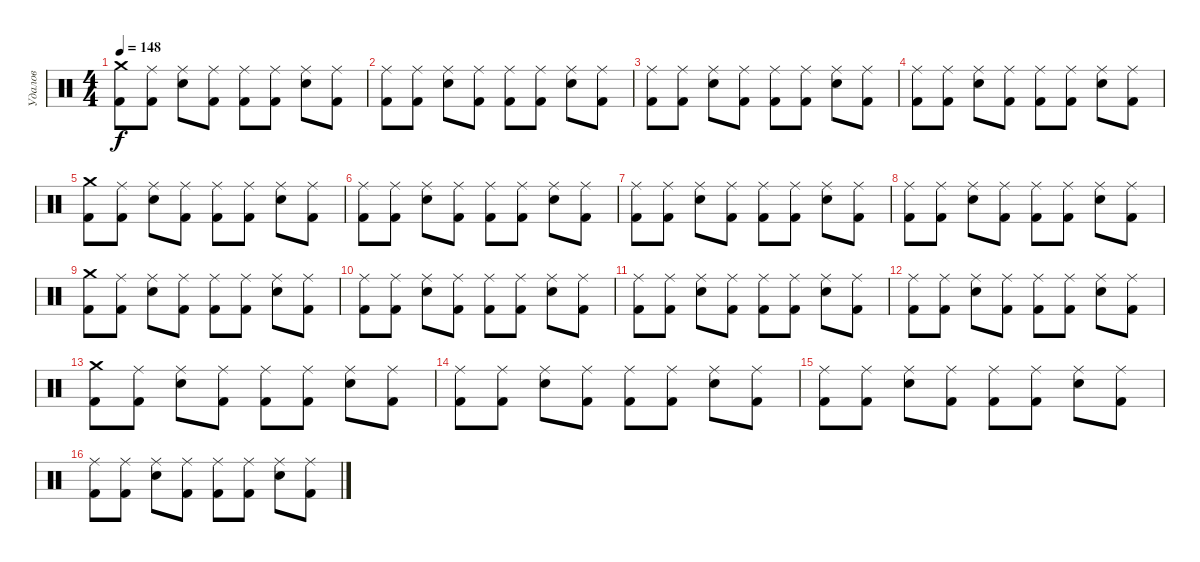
\track ("Удалов" "Удалов") {instrument percussion}
\staff {score}
\articulation defaults
\ts (4 4)
\tempo 148
\clef neutral
\ks c
("Kick (hit) 2" "Crash medium (hit)").8{dy f} ("Ride (middle)" "Kick (hit) 2").8 ("Ride (middle)" "Snare (hit) 2").8 ("Ride (middle)" "Kick (hit) 2").8 ("Ride (middle)" "Kick (hit) 2").8 ("Ride (middle)" "Kick (hit) 2").8 ("Ride (middle)" "Snare (hit) 2").8 ("Ride (middle)" "Kick (hit) 2").8 |
("Kick (hit) 2" "Ride (middle)").8 ("Ride (middle)" "Kick (hit) 2").8 ("Ride (middle)" "Snare (hit) 2").8 ("Ride (middle)" "Kick (hit) 2").8 ("Ride (middle)" "Kick (hit) 2").8 ("Ride (middle)" "Kick (hit) 2").8 ("Ride (middle)" "Snare (hit) 2").8 ("Ride (middle)" "Kick (hit) 2").8 |
("Kick (hit) 2" "Ride (middle)").8 ("Ride (middle)" "Kick (hit) 2").8 ("Ride (middle)" "Snare (hit) 2").8 ("Ride (middle)" "Kick (hit) 2").8 ("Ride (middle)" "Kick (hit) 2").8 ("Ride (middle)" "Kick (hit) 2").8 ("Ride (middle)" "Snare (hit) 2").8 ("Ride (middle)" "Kick (hit) 2").8 |
("Kick (hit) 2" "Ride (middle)").8 ("Ride (middle)" "Kick (hit) 2").8 ("Ride (middle)" "Snare (hit) 2").8 ("Ride (middle)" "Kick (hit) 2").8 ("Ride (middle)" "Kick (hit) 2").8 ("Ride (middle)" "Kick (hit) 2").8 ("Ride (middle)" "Snare (hit) 2").8 ("Ride (middle)" "Kick (hit) 2").8 |
("Kick (hit) 2" "Crash medium (hit)").8 ("Ride (middle)" "Kick (hit) 2").8 ("Ride (middle)" "Snare (hit) 2").8 ("Ride (middle)" "Kick (hit) 2").8 ("Ride (middle)" "Kick (hit) 2").8 ("Ride (middle)" "Kick (hit) 2").8 ("Ride (middle)" "Snare (hit) 2").8 ("Ride (middle)" "Kick (hit) 2").8 |
("Kick (hit) 2" "Ride (middle)").8 ("Ride (middle)" "Kick (hit) 2").8 ("Ride (middle)" "Snare (hit) 2").8 ("Ride (middle)" "Kick (hit) 2").8 ("Ride (middle)" "Kick (hit) 2").8 ("Ride (middle)" "Kick (hit) 2").8 ("Ride (middle)" "Snare (hit) 2").8 ("Ride (middle)" "Kick (hit) 2").8 |
("Kick (hit) 2" "Ride (middle)").8 ("Ride (middle)" "Kick (hit) 2").8 ("Ride (middle)" "Snare (hit) 2").8 ("Ride (middle)" "Kick (hit) 2").8 ("Ride (middle)" "Kick (hit) 2").8 ("Ride (middle)" "Kick (hit) 2").8 ("Ride (middle)" "Snare (hit) 2").8 ("Ride (middle)" "Kick (hit) 2").8 |
("Kick (hit) 2" "Ride (middle)").8 ("Ride (middle)" "Kick (hit) 2").8 ("Ride (middle)" "Snare (hit) 2").8 ("Ride (middle)" "Kick (hit) 2").8 ("Ride (middle)" "Kick (hit) 2").8 ("Ride (middle)" "Kick (hit) 2").8 ("Ride (middle)" "Snare (hit) 2").8 ("Ride (middle)" "Kick (hit) 2").8 |
("Kick (hit) 2" "Crash medium (hit)").8 ("Ride (middle)" "Kick (hit) 2").8 ("Ride (middle)" "Snare (hit) 2").8 ("Ride (middle)" "Kick (hit) 2").8 ("Ride (middle)" "Kick (hit) 2").8 ("Ride (middle)" "Kick (hit) 2").8 ("Ride (middle)" "Snare (hit) 2").8 ("Ride (middle)" "Kick (hit) 2").8 |
("Kick (hit) 2" "Ride (middle)").8 ("Ride (middle)" "Kick (hit) 2").8 ("Ride (middle)" "Snare (hit) 2").8 ("Ride (middle)" "Kick (hit) 2").8 ("Ride (middle)" "Kick (hit) 2").8 ("Ride (middle)" "Kick (hit) 2").8 ("Ride (middle)" "Snare (hit) 2").8 ("Ride (middle)" "Kick (hit) 2").8 |
("Kick (hit) 2" "Ride (middle)").8 ("Ride (middle)" "Kick (hit) 2").8 ("Ride (middle)" "Snare (hit) 2").8 ("Ride (middle)" "Kick (hit) 2").8 ("Ride (middle)" "Kick (hit) 2").8 ("Ride (middle)" "Kick (hit) 2").8 ("Ride (middle)" "Snare (hit) 2").8 ("Ride (middle)" "Kick (hit) 2").8 |
("Kick (hit) 2" "Ride (middle)").8 ("Ride (middle)" "Kick (hit) 2").8 ("Ride (middle)" "Snare (hit) 2").8 ("Ride (middle)" "Kick (hit) 2").8 ("Ride (middle)" "Kick (hit) 2").8 ("Ride (middle)" "Kick (hit) 2").8 ("Ride (middle)" "Snare (hit) 2").8 ("Ride (middle)" "Kick (hit) 2").8 |
("Kick (hit) 2" "Crash medium (hit)").8 ("Ride (middle)" "Kick (hit) 2").8 ("Ride (middle)" "Snare (hit) 2").8 ("Ride (middle)" "Kick (hit) 2").8 ("Ride (middle)" "Kick (hit) 2").8 ("Ride (middle)" "Kick (hit) 2").8 ("Ride (middle)" "Snare (hit) 2").8 ("Ride (middle)" "Kick (hit) 2").8 |
("Kick (hit) 2" "Ride (middle)").8 ("Ride (middle)" "Kick (hit) 2").8 ("Ride (middle)" "Snare (hit) 2").8 ("Ride (middle)" "Kick (hit) 2").8 ("Ride (middle)" "Kick (hit) 2").8 ("Ride (middle)" "Kick (hit) 2").8 ("Ride (middle)" "Snare (hit) 2").8 ("Ride (middle)" "Kick (hit) 2").8 |
("Kick (hit) 2" "Ride (middle)").8 ("Ride (middle)" "Kick (hit) 2").8 ("Ride (middle)" "Snare (hit) 2").8 ("Ride (middle)" "Kick (hit) 2").8 ("Ride (middle)" "Kick (hit) 2").8 ("Ride (middle)" "Kick (hit) 2").8 ("Ride (middle)" "Snare (hit) 2").8 ("Ride (middle)" "Kick (hit) 2").8 |
("Kick (hit) 2" "Ride (middle)").8 ("Ride (middle)" "Kick (hit) 2").8 ("Ride (middle)" "Snare (hit) 2").8 ("Ride (middle)" "Kick (hit) 2").8 ("Ride (middle)" "Kick (hit) 2").8 ("Ride (middle)" "Kick (hit) 2").8 ("Ride (middle)" "Snare (hit) 2").8 ("Ride (middle)" "Kick (hit) 2").8
